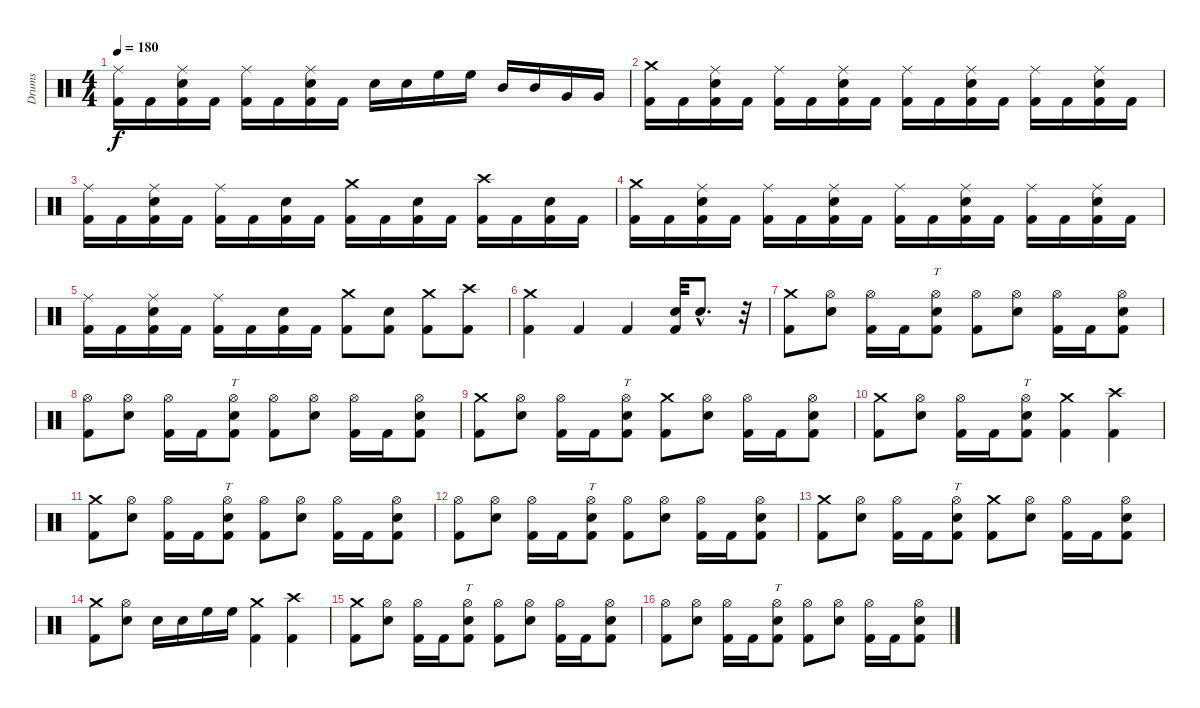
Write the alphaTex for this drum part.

\track ("Drums" "Drums") {instrument percussion}
\staff {score}
\articulation defaults
\ts (4 4)
\tempo 180
\clef neutral
\ks c
("Ride (middle)" "Kick (hit) 2").16{dy f} "Kick (hit) 2".16 ("Ride (middle)" "Electric Snare (hit)" "Kick (hit) 2").16 "Kick (hit) 2".16 ("Ride (middle)" "Kick (hit) 2").16 "Kick (hit) 2".16 ("Ride (middle)" "Electric Snare (hit)" "Kick (hit) 2").16 "Kick (hit) 2".16 "Electric Snare (hit)".16 "Electric Snare (hit)".16 "High Floor Tom (hit)".16 "High Floor Tom (hit)".16 "Mid Tom (hit)".16 "Mid Tom (hit)".16 "Very Low Tom (hit)".16 "Very Low Tom (hit)".16 |
("Crash medium (hit)" "Kick (hit) 2").16 "Kick (hit) 2".16 ("Ride (middle)" "Electric Snare (hit)" "Kick (hit) 2").16 "Kick (hit) 2".16 ("Ride (middle)" "Kick (hit) 2").16 "Kick (hit) 2".16 ("Ride (middle)" "Electric Snare (hit)" "Kick (hit) 2").16 "Kick (hit) 2".16 ("Ride (middle)" "Kick (hit) 2").16 "Kick (hit) 2".16 ("Ride (middle)" "Electric Snare (hit)" "Kick (hit) 2").16 "Kick (hit) 2".16 ("Ride (middle)" "Kick (hit) 2").16 "Kick (hit) 2".16 ("Ride (middle)" "Electric Snare (hit)" "Kick (hit) 2").16 "Kick (hit) 2".16 |
("Ride (middle)" "Kick (hit) 2").16 "Kick (hit) 2".16 ("Ride (middle)" "Electric Snare (hit)" "Kick (hit) 2").16 "Kick (hit) 2".16 ("Ride (middle)" "Kick (hit) 2").16 "Kick (hit) 2".16 ("Electric Snare (hit)" "Kick (hit) 2").16 "Kick (hit) 2".16 ("Crash medium (hit)" "Kick (hit) 2").16 "Kick (hit) 2".16 ("Electric Snare (hit)" "Kick (hit) 2").16 "Kick (hit) 2".16 ("Crash high (hit)" "Kick (hit) 2").16 "Kick (hit) 2".16 ("Electric Snare (hit)" "Kick (hit) 2").16 "Kick (hit) 2".16 |
("Crash medium (hit)" "Kick (hit) 2").16 "Kick (hit) 2".16 ("Ride (middle)" "Electric Snare (hit)" "Kick (hit) 2").16 "Kick (hit) 2".16 ("Ride (middle)" "Kick (hit) 2").16 "Kick (hit) 2".16 ("Ride (middle)" "Electric Snare (hit)" "Kick (hit) 2").16 "Kick (hit) 2".16 ("Ride (middle)" "Kick (hit) 2").16 "Kick (hit) 2".16 ("Ride (middle)" "Electric Snare (hit)" "Kick (hit) 2").16 "Kick (hit) 2".16 ("Ride (middle)" "Kick (hit) 2").16 "Kick (hit) 2".16 ("Ride (middle)" "Electric Snare (hit)" "Kick (hit) 2").16 "Kick (hit) 2".16 |
("Ride (middle)" "Kick (hit) 2").16 "Kick (hit) 2".16 ("Ride (middle)" "Electric Snare (hit)" "Kick (hit) 2").16 "Kick (hit) 2".16 ("Ride (middle)" "Kick (hit) 2").16 "Kick (hit) 2".16 ("Electric Snare (hit)" "Kick (hit) 2").16 "Kick (hit) 2".16 ("Crash medium (hit)" "Kick (hit) 2").8 ("Electric Snare (hit)" "Kick (hit) 2").8 ("Crash medium (hit)" "Kick (hit) 2").8 ("Crash high (hit)" "Kick (hit) 2").8 |
("Crash medium (hit)" "Kick (hit) 2").4 "Kick (hit) 2".4 "Kick (hit) 2".4 ("Electric Snare (hit)" "Kick (hit) 2").32 "Electric Snare (hit)"{hac}.8{d} r.32 |
("Crash medium (hit)" "Kick (hit) 2").8 ("Hi-Hat (open)" "Electric Snare (hit)").8 ("Hi-Hat (open)" "Kick (hit) 2").16 "Kick (hit) 2".16 ("Hi-Hat (open)" "Electric Snare (hit)" "Kick (hit) 2").8{tt} ("Hi-Hat (open)" "Kick (hit) 2").8 ("Hi-Hat (open)" "Electric Snare (hit)").8 ("Hi-Hat (open)" "Kick (hit) 2").16 "Kick (hit) 2".16 ("Hi-Hat (open)" "Electric Snare (hit)" "Kick (hit) 2").8 |
("Hi-Hat (open)" "Kick (hit) 2").8 ("Hi-Hat (open)" "Electric Snare (hit)").8 ("Hi-Hat (open)" "Kick (hit) 2").16 "Kick (hit) 2".16 ("Hi-Hat (open)" "Electric Snare (hit)" "Kick (hit) 2").8{tt} ("Hi-Hat (open)" "Kick (hit) 2").8 ("Hi-Hat (open)" "Electric Snare (hit)").8 ("Hi-Hat (open)" "Kick (hit) 2").16 "Kick (hit) 2".16 ("Hi-Hat (open)" "Electric Snare (hit)" "Kick (hit) 2").8 |
("Crash medium (hit)" "Kick (hit) 2").8 ("Hi-Hat (open)" "Electric Snare (hit)").8 ("Hi-Hat (open)" "Kick (hit) 2").16 "Kick (hit) 2".16 ("Hi-Hat (open)" "Electric Snare (hit)" "Kick (hit) 2").8{tt} ("Crash medium (hit)" "Kick (hit) 2").8 ("Hi-Hat (open)" "Electric Snare (hit)").8 ("Hi-Hat (open)" "Kick (hit) 2").16 "Kick (hit) 2".16 ("Hi-Hat (open)" "Electric Snare (hit)" "Kick (hit) 2").8 |
("Crash medium (hit)" "Kick (hit) 2").8 ("Hi-Hat (open)" "Electric Snare (hit)").8 ("Hi-Hat (open)" "Kick (hit) 2").16 "Kick (hit) 2".16 ("Hi-Hat (open)" "Electric Snare (hit)" "Kick (hit) 2").8{tt} ("Crash medium (hit)" "Kick (hit) 2").4 ("Crash high (hit)" "Kick (hit) 2").4 |
("Crash medium (hit)" "Kick (hit) 2").8 ("Hi-Hat (open)" "Electric Snare (hit)").8 ("Hi-Hat (open)" "Kick (hit) 2").16 "Kick (hit) 2".16 ("Hi-Hat (open)" "Electric Snare (hit)" "Kick (hit) 2").8{tt} ("Hi-Hat (open)" "Kick (hit) 2").8 ("Hi-Hat (open)" "Electric Snare (hit)").8 ("Hi-Hat (open)" "Kick (hit) 2").16 "Kick (hit) 2".16 ("Hi-Hat (open)" "Electric Snare (hit)" "Kick (hit) 2").8 |
("Hi-Hat (open)" "Kick (hit) 2").8 ("Hi-Hat (open)" "Electric Snare (hit)").8 ("Hi-Hat (open)" "Kick (hit) 2").16 "Kick (hit) 2".16 ("Hi-Hat (open)" "Electric Snare (hit)" "Kick (hit) 2").8{tt} ("Hi-Hat (open)" "Kick (hit) 2").8 ("Hi-Hat (open)" "Electric Snare (hit)").8 ("Hi-Hat (open)" "Kick (hit) 2").16 "Kick (hit) 2".16 ("Hi-Hat (open)" "Electric Snare (hit)" "Kick (hit) 2").8 |
("Crash medium (hit)" "Kick (hit) 2").8 ("Hi-Hat (open)" "Electric Snare (hit)").8 ("Hi-Hat (open)" "Kick (hit) 2").16 "Kick (hit) 2".16 ("Hi-Hat (open)" "Electric Snare (hit)" "Kick (hit) 2").8{tt} ("Crash medium (hit)" "Kick (hit) 2").8 ("Hi-Hat (open)" "Electric Snare (hit)").8 ("Hi-Hat (open)" "Kick (hit) 2").16 "Kick (hit) 2".16 ("Hi-Hat (open)" "Electric Snare (hit)" "Kick (hit) 2").8 |
("Crash medium (hit)" "Kick (hit) 2").8 ("Hi-Hat (open)" "Electric Snare (hit)").8 "Electric Snare (hit)".16 "Electric Snare (hit)".16 "High Floor Tom (hit)".16 "High Floor Tom (hit)".16 ("Crash medium (hit)" "Kick (hit) 2").4 ("Crash high (hit)" "Kick (hit) 2").4 |
("Crash medium (hit)" "Kick (hit) 2").8 ("Hi-Hat (open)" "Electric Snare (hit)").8 ("Hi-Hat (open)" "Kick (hit) 2").16 "Kick (hit) 2".16 ("Hi-Hat (open)" "Electric Snare (hit)" "Kick (hit) 2").8{tt} ("Hi-Hat (open)" "Kick (hit) 2").8 ("Hi-Hat (open)" "Electric Snare (hit)").8 ("Hi-Hat (open)" "Kick (hit) 2").16 "Kick (hit) 2".16 ("Hi-Hat (open)" "Electric Snare (hit)" "Kick (hit) 2").8 |
("Hi-Hat (open)" "Kick (hit) 2").8 ("Hi-Hat (open)" "Electric Snare (hit)").8 ("Hi-Hat (open)" "Kick (hit) 2").16 "Kick (hit) 2".16 ("Hi-Hat (open)" "Electric Snare (hit)" "Kick (hit) 2").8{tt} ("Hi-Hat (open)" "Kick (hit) 2").8 ("Hi-Hat (open)" "Electric Snare (hit)").8 ("Hi-Hat (open)" "Kick (hit) 2").16 "Kick (hit) 2".16 ("Hi-Hat (open)" "Electric Snare (hit)" "Kick (hit) 2").8
